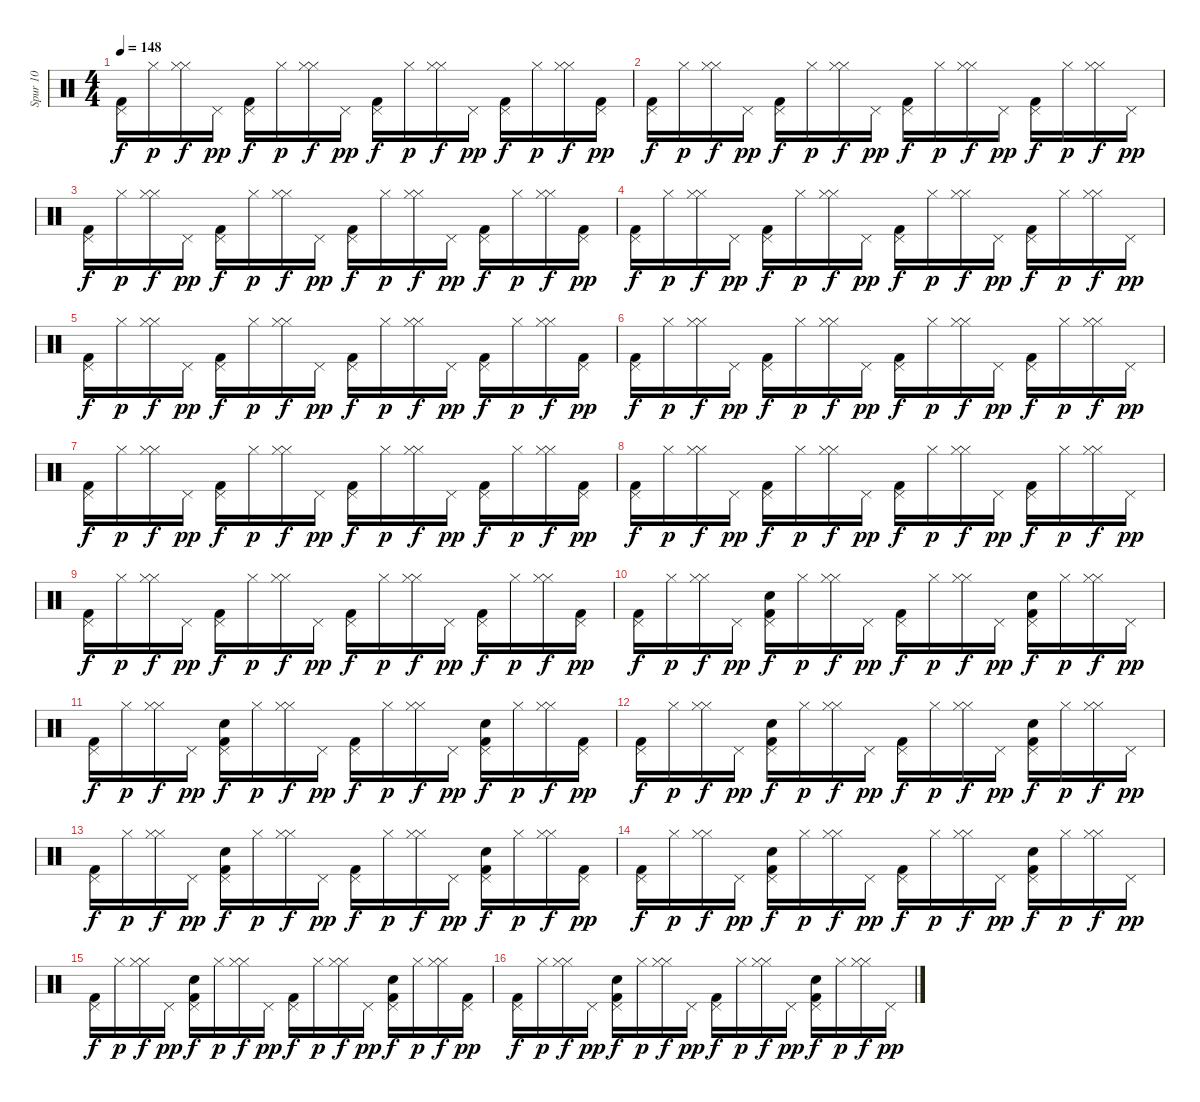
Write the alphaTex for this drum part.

\track ("Spur 10" "Spur 10") {instrument percussion}
\staff {score}
\articulation defaults
\ts (4 4)
\tempo 148
\clef neutral
\ks c
("Pedal Hi-Hat (hit)" "Kick (hit) 2").16{dy f} "Hi-Hat (closed)".16{dy p} ("Hi-Hat (closed)" "Hi-Hat (closed)").16{dy f} "Pedal Hi-Hat (hit)".16{dy pp} ("Pedal Hi-Hat (hit)" "Kick (hit) 2").16{dy f} "Hi-Hat (closed)".16{dy p} ("Hi-Hat (closed)" "Hi-Hat (closed)").16{dy f} "Pedal Hi-Hat (hit)".16{dy pp} ("Pedal Hi-Hat (hit)" "Kick (hit) 2").16{dy f} "Hi-Hat (closed)".16{dy p} ("Hi-Hat (closed)" "Hi-Hat (closed)").16{dy f} "Pedal Hi-Hat (hit)".16{dy pp} ("Pedal Hi-Hat (hit)" "Kick (hit) 2").16{dy f} "Hi-Hat (closed)".16{dy p} ("Hi-Hat (closed)" "Hi-Hat (closed)").16{dy f} ("Kick (hit) 2" "Pedal Hi-Hat (hit)").16{dy pp} |
("Pedal Hi-Hat (hit)" "Kick (hit) 2").16{dy f} "Hi-Hat (closed)".16{dy p} ("Hi-Hat (closed)" "Hi-Hat (closed)").16{dy f} "Pedal Hi-Hat (hit)".16{dy pp} ("Pedal Hi-Hat (hit)" "Kick (hit) 2").16{dy f} "Hi-Hat (closed)".16{dy p} ("Hi-Hat (closed)" "Hi-Hat (closed)").16{dy f} "Pedal Hi-Hat (hit)".16{dy pp} ("Pedal Hi-Hat (hit)" "Kick (hit) 2").16{dy f} "Hi-Hat (closed)".16{dy p} ("Hi-Hat (closed)" "Hi-Hat (closed)").16{dy f} "Pedal Hi-Hat (hit)".16{dy pp} ("Pedal Hi-Hat (hit)" "Kick (hit) 2").16{dy f} "Hi-Hat (closed)".16{dy p} ("Hi-Hat (closed)" "Hi-Hat (closed)").16{dy f} "Pedal Hi-Hat (hit)".16{dy pp} |
("Pedal Hi-Hat (hit)" "Kick (hit) 2").16{dy f} "Hi-Hat (closed)".16{dy p} ("Hi-Hat (closed)" "Hi-Hat (closed)").16{dy f} "Pedal Hi-Hat (hit)".16{dy pp} ("Pedal Hi-Hat (hit)" "Kick (hit) 2").16{dy f} "Hi-Hat (closed)".16{dy p} ("Hi-Hat (closed)" "Hi-Hat (closed)").16{dy f} "Pedal Hi-Hat (hit)".16{dy pp} ("Pedal Hi-Hat (hit)" "Kick (hit) 2").16{dy f} "Hi-Hat (closed)".16{dy p} ("Hi-Hat (closed)" "Hi-Hat (closed)").16{dy f} "Pedal Hi-Hat (hit)".16{dy pp} ("Pedal Hi-Hat (hit)" "Kick (hit) 2").16{dy f} "Hi-Hat (closed)".16{dy p} ("Hi-Hat (closed)" "Hi-Hat (closed)").16{dy f} ("Kick (hit) 2" "Pedal Hi-Hat (hit)").16{dy pp} |
("Pedal Hi-Hat (hit)" "Kick (hit) 2").16{dy f} "Hi-Hat (closed)".16{dy p} ("Hi-Hat (closed)" "Hi-Hat (closed)").16{dy f} "Pedal Hi-Hat (hit)".16{dy pp} ("Pedal Hi-Hat (hit)" "Kick (hit) 2").16{dy f} "Hi-Hat (closed)".16{dy p} ("Hi-Hat (closed)" "Hi-Hat (closed)").16{dy f} "Pedal Hi-Hat (hit)".16{dy pp} ("Pedal Hi-Hat (hit)" "Kick (hit) 2").16{dy f} "Hi-Hat (closed)".16{dy p} ("Hi-Hat (closed)" "Hi-Hat (closed)").16{dy f} "Pedal Hi-Hat (hit)".16{dy pp} ("Pedal Hi-Hat (hit)" "Kick (hit) 2").16{dy f} "Hi-Hat (closed)".16{dy p} ("Hi-Hat (closed)" "Hi-Hat (closed)").16{dy f} "Pedal Hi-Hat (hit)".16{dy pp} |
("Pedal Hi-Hat (hit)" "Kick (hit) 2").16{dy f} "Hi-Hat (closed)".16{dy p} ("Hi-Hat (closed)" "Hi-Hat (closed)").16{dy f} "Pedal Hi-Hat (hit)".16{dy pp} ("Pedal Hi-Hat (hit)" "Kick (hit) 2").16{dy f} "Hi-Hat (closed)".16{dy p} ("Hi-Hat (closed)" "Hi-Hat (closed)").16{dy f} "Pedal Hi-Hat (hit)".16{dy pp} ("Pedal Hi-Hat (hit)" "Kick (hit) 2").16{dy f} "Hi-Hat (closed)".16{dy p} ("Hi-Hat (closed)" "Hi-Hat (closed)").16{dy f} "Pedal Hi-Hat (hit)".16{dy pp} ("Pedal Hi-Hat (hit)" "Kick (hit) 2").16{dy f} "Hi-Hat (closed)".16{dy p} ("Hi-Hat (closed)" "Hi-Hat (closed)").16{dy f} ("Kick (hit) 2" "Pedal Hi-Hat (hit)").16{dy pp} |
("Pedal Hi-Hat (hit)" "Kick (hit) 2").16{dy f} "Hi-Hat (closed)".16{dy p} ("Hi-Hat (closed)" "Hi-Hat (closed)").16{dy f} "Pedal Hi-Hat (hit)".16{dy pp} ("Pedal Hi-Hat (hit)" "Kick (hit) 2").16{dy f} "Hi-Hat (closed)".16{dy p} ("Hi-Hat (closed)" "Hi-Hat (closed)").16{dy f} "Pedal Hi-Hat (hit)".16{dy pp} ("Pedal Hi-Hat (hit)" "Kick (hit) 2").16{dy f} "Hi-Hat (closed)".16{dy p} ("Hi-Hat (closed)" "Hi-Hat (closed)").16{dy f} "Pedal Hi-Hat (hit)".16{dy pp} ("Pedal Hi-Hat (hit)" "Kick (hit) 2").16{dy f} "Hi-Hat (closed)".16{dy p} ("Hi-Hat (closed)" "Hi-Hat (closed)").16{dy f} "Pedal Hi-Hat (hit)".16{dy pp} |
("Pedal Hi-Hat (hit)" "Kick (hit) 2").16{dy f} "Hi-Hat (closed)".16{dy p} ("Hi-Hat (closed)" "Hi-Hat (closed)").16{dy f} "Pedal Hi-Hat (hit)".16{dy pp} ("Pedal Hi-Hat (hit)" "Kick (hit) 2").16{dy f} "Hi-Hat (closed)".16{dy p} ("Hi-Hat (closed)" "Hi-Hat (closed)").16{dy f} "Pedal Hi-Hat (hit)".16{dy pp} ("Pedal Hi-Hat (hit)" "Kick (hit) 2").16{dy f} "Hi-Hat (closed)".16{dy p} ("Hi-Hat (closed)" "Hi-Hat (closed)").16{dy f} "Pedal Hi-Hat (hit)".16{dy pp} ("Pedal Hi-Hat (hit)" "Kick (hit) 2").16{dy f} "Hi-Hat (closed)".16{dy p} ("Hi-Hat (closed)" "Hi-Hat (closed)").16{dy f} ("Kick (hit) 2" "Pedal Hi-Hat (hit)").16{dy pp} |
("Pedal Hi-Hat (hit)" "Kick (hit) 2").16{dy f} "Hi-Hat (closed)".16{dy p} ("Hi-Hat (closed)" "Hi-Hat (closed)").16{dy f} "Pedal Hi-Hat (hit)".16{dy pp} ("Pedal Hi-Hat (hit)" "Kick (hit) 2").16{dy f} "Hi-Hat (closed)".16{dy p} ("Hi-Hat (closed)" "Hi-Hat (closed)").16{dy f} "Pedal Hi-Hat (hit)".16{dy pp} ("Pedal Hi-Hat (hit)" "Kick (hit) 2").16{dy f} "Hi-Hat (closed)".16{dy p} ("Hi-Hat (closed)" "Hi-Hat (closed)").16{dy f} "Pedal Hi-Hat (hit)".16{dy pp} ("Pedal Hi-Hat (hit)" "Kick (hit) 2").16{dy f} "Hi-Hat (closed)".16{dy p} ("Hi-Hat (closed)" "Hi-Hat (closed)").16{dy f} "Pedal Hi-Hat (hit)".16{dy pp} |
("Pedal Hi-Hat (hit)" "Kick (hit) 2").16{dy f} "Hi-Hat (closed)".16{dy p} ("Hi-Hat (closed)" "Hi-Hat (closed)").16{dy f} "Pedal Hi-Hat (hit)".16{dy pp} ("Pedal Hi-Hat (hit)" "Kick (hit) 2").16{dy f} "Hi-Hat (closed)".16{dy p} ("Hi-Hat (closed)" "Hi-Hat (closed)").16{dy f} "Pedal Hi-Hat (hit)".16{dy pp} ("Pedal Hi-Hat (hit)" "Kick (hit) 2").16{dy f} "Hi-Hat (closed)".16{dy p} ("Hi-Hat (closed)" "Hi-Hat (closed)").16{dy f} "Pedal Hi-Hat (hit)".16{dy pp} ("Pedal Hi-Hat (hit)" "Kick (hit) 2").16{dy f} "Hi-Hat (closed)".16{dy p} ("Hi-Hat (closed)" "Hi-Hat (closed)").16{dy f} ("Kick (hit) 2" "Pedal Hi-Hat (hit)").16{dy pp} |
("Pedal Hi-Hat (hit)" "Kick (hit) 2").16{dy f} "Hi-Hat (closed)".16{dy p} ("Hi-Hat (closed)" "Hi-Hat (closed)").16{dy f} "Pedal Hi-Hat (hit)".16{dy pp} ("Pedal Hi-Hat (hit)" "Kick (hit) 2" "Snare (hit) 2").16{dy f} "Hi-Hat (closed)".16{dy p} ("Hi-Hat (closed)" "Hi-Hat (closed)").16{dy f} "Pedal Hi-Hat (hit)".16{dy pp} ("Pedal Hi-Hat (hit)" "Kick (hit) 2").16{dy f} "Hi-Hat (closed)".16{dy p} ("Hi-Hat (closed)" "Hi-Hat (closed)").16{dy f} "Pedal Hi-Hat (hit)".16{dy pp} ("Pedal Hi-Hat (hit)" "Kick (hit) 2" "Snare (hit) 2").16{dy f} "Hi-Hat (closed)".16{dy p} ("Hi-Hat (closed)" "Hi-Hat (closed)").16{dy f} "Pedal Hi-Hat (hit)".16{dy pp} |
("Pedal Hi-Hat (hit)" "Kick (hit) 2").16{dy f} "Hi-Hat (closed)".16{dy p} ("Hi-Hat (closed)" "Hi-Hat (closed)").16{dy f} "Pedal Hi-Hat (hit)".16{dy pp} ("Pedal Hi-Hat (hit)" "Kick (hit) 2" "Snare (hit) 2").16{dy f} "Hi-Hat (closed)".16{dy p} ("Hi-Hat (closed)" "Hi-Hat (closed)").16{dy f} "Pedal Hi-Hat (hit)".16{dy pp} ("Pedal Hi-Hat (hit)" "Kick (hit) 2").16{dy f} "Hi-Hat (closed)".16{dy p} ("Hi-Hat (closed)" "Hi-Hat (closed)").16{dy f} "Pedal Hi-Hat (hit)".16{dy pp} ("Pedal Hi-Hat (hit)" "Kick (hit) 2" "Snare (hit) 2").16{dy f} "Hi-Hat (closed)".16{dy p} ("Hi-Hat (closed)" "Hi-Hat (closed)").16{dy f} ("Kick (hit) 2" "Pedal Hi-Hat (hit)").16{dy pp} |
("Pedal Hi-Hat (hit)" "Kick (hit) 2").16{dy f} "Hi-Hat (closed)".16{dy p} ("Hi-Hat (closed)" "Hi-Hat (closed)").16{dy f} "Pedal Hi-Hat (hit)".16{dy pp} ("Pedal Hi-Hat (hit)" "Kick (hit) 2" "Snare (hit) 2").16{dy f} "Hi-Hat (closed)".16{dy p} ("Hi-Hat (closed)" "Hi-Hat (closed)").16{dy f} "Pedal Hi-Hat (hit)".16{dy pp} ("Pedal Hi-Hat (hit)" "Kick (hit) 2").16{dy f} "Hi-Hat (closed)".16{dy p} ("Hi-Hat (closed)" "Hi-Hat (closed)").16{dy f} "Pedal Hi-Hat (hit)".16{dy pp} ("Pedal Hi-Hat (hit)" "Snare (hit) 2" "Kick (hit) 2").16{dy f} "Hi-Hat (closed)".16{dy p} ("Hi-Hat (closed)" "Hi-Hat (closed)").16{dy f} "Pedal Hi-Hat (hit)".16{dy pp} |
("Pedal Hi-Hat (hit)" "Kick (hit) 2").16{dy f} "Hi-Hat (closed)".16{dy p} ("Hi-Hat (closed)" "Hi-Hat (closed)").16{dy f} "Pedal Hi-Hat (hit)".16{dy pp} ("Pedal Hi-Hat (hit)" "Snare (hit) 2" "Kick (hit) 2").16{dy f} "Hi-Hat (closed)".16{dy p} ("Hi-Hat (closed)" "Hi-Hat (closed)").16{dy f} "Pedal Hi-Hat (hit)".16{dy pp} ("Pedal Hi-Hat (hit)" "Kick (hit) 2").16{dy f} "Hi-Hat (closed)".16{dy p} ("Hi-Hat (closed)" "Hi-Hat (closed)").16{dy f} "Pedal Hi-Hat (hit)".16{dy pp} ("Pedal Hi-Hat (hit)" "Snare (hit) 2" "Kick (hit) 2").16{dy f} "Hi-Hat (closed)".16{dy p} ("Hi-Hat (closed)" "Hi-Hat (closed)").16{dy f} ("Kick (hit) 2" "Pedal Hi-Hat (hit)").16{dy pp} |
("Pedal Hi-Hat (hit)" "Kick (hit) 2").16{dy f} "Hi-Hat (closed)".16{dy p} ("Hi-Hat (closed)" "Hi-Hat (closed)").16{dy f} "Pedal Hi-Hat (hit)".16{dy pp} ("Pedal Hi-Hat (hit)" "Snare (hit) 2" "Kick (hit) 2").16{dy f} "Hi-Hat (closed)".16{dy p} ("Hi-Hat (closed)" "Hi-Hat (closed)").16{dy f} "Pedal Hi-Hat (hit)".16{dy pp} ("Pedal Hi-Hat (hit)" "Kick (hit) 2").16{dy f} "Hi-Hat (closed)".16{dy p} ("Hi-Hat (closed)" "Hi-Hat (closed)").16{dy f} "Pedal Hi-Hat (hit)".16{dy pp} ("Pedal Hi-Hat (hit)" "Snare (hit) 2" "Kick (hit) 2").16{dy f} "Hi-Hat (closed)".16{dy p} ("Hi-Hat (closed)" "Hi-Hat (closed)").16{dy f} "Pedal Hi-Hat (hit)".16{dy pp} |
("Pedal Hi-Hat (hit)" "Kick (hit) 2").16{dy f} "Hi-Hat (closed)".16{dy p} ("Hi-Hat (closed)" "Hi-Hat (closed)").16{dy f} "Pedal Hi-Hat (hit)".16{dy pp} ("Pedal Hi-Hat (hit)" "Snare (hit) 2" "Kick (hit) 2").16{dy f} "Hi-Hat (closed)".16{dy p} ("Hi-Hat (closed)" "Hi-Hat (closed)").16{dy f} "Pedal Hi-Hat (hit)".16{dy pp} ("Pedal Hi-Hat (hit)" "Kick (hit) 2").16{dy f} "Hi-Hat (closed)".16{dy p} ("Hi-Hat (closed)" "Hi-Hat (closed)").16{dy f} "Pedal Hi-Hat (hit)".16{dy pp} ("Pedal Hi-Hat (hit)" "Kick (hit) 2" "Snare (hit) 2").16{dy f} "Hi-Hat (closed)".16{dy p} ("Hi-Hat (closed)" "Hi-Hat (closed)").16{dy f} ("Kick (hit) 2" "Pedal Hi-Hat (hit)").16{dy pp} |
("Pedal Hi-Hat (hit)" "Kick (hit) 2").16{dy f} "Hi-Hat (closed)".16{dy p} ("Hi-Hat (closed)" "Hi-Hat (closed)").16{dy f} "Pedal Hi-Hat (hit)".16{dy pp} ("Pedal Hi-Hat (hit)" "Snare (hit) 2" "Kick (hit) 2").16{dy f} "Hi-Hat (closed)".16{dy p} ("Hi-Hat (closed)" "Hi-Hat (closed)").16{dy f} "Pedal Hi-Hat (hit)".16{dy pp} ("Pedal Hi-Hat (hit)" "Kick (hit) 2").16{dy f} "Hi-Hat (closed)".16{dy p} ("Hi-Hat (closed)" "Hi-Hat (closed)").16{dy f} "Pedal Hi-Hat (hit)".16{dy pp} ("Pedal Hi-Hat (hit)" "Kick (hit) 2" "Snare (hit) 2").16{dy f} "Hi-Hat (closed)".16{dy p} ("Hi-Hat (closed)" "Hi-Hat (closed)").16{dy f} "Pedal Hi-Hat (hit)".16{dy pp}
